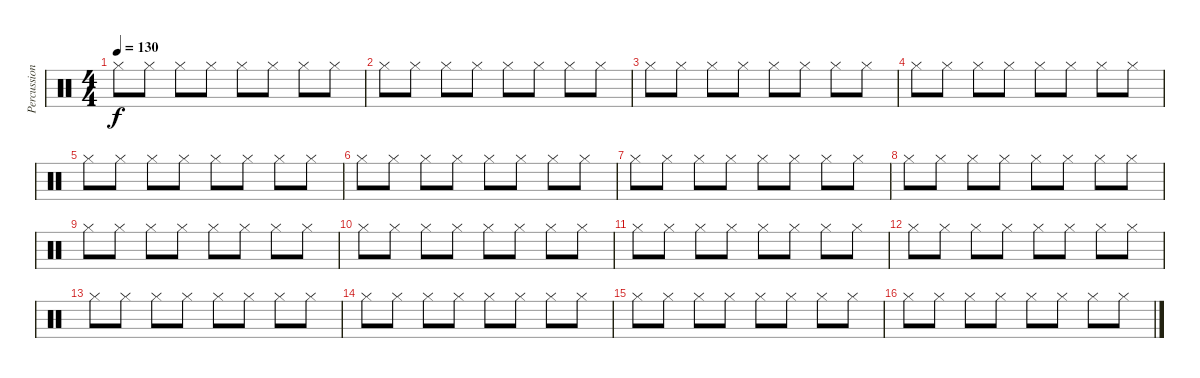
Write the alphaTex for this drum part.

\track ("Percussion" "Percussion") {instrument percussion}
\staff {score}
\articulation defaults
\ts (4 4)
\tempo 130
\clef neutral
\ks c "Hi-Hat (closed)".8{dy f} "Hi-Hat (closed)".8 "Hi-Hat (closed)".8 "Hi-Hat (closed)".8 "Hi-Hat (closed)".8 "Hi-Hat (closed)".8 "Hi-Hat (closed)".8 "Hi-Hat (closed)".8
|
"Hi-Hat (closed)".8 "Hi-Hat (closed)".8 "Hi-Hat (closed)".8 "Hi-Hat (closed)".8 "Hi-Hat (closed)".8 "Hi-Hat (closed)".8 "Hi-Hat (closed)".8 "Hi-Hat (closed)".8 |
"Hi-Hat (closed)".8 "Hi-Hat (closed)".8 "Hi-Hat (closed)".8 "Hi-Hat (closed)".8 "Hi-Hat (closed)".8 "Hi-Hat (closed)".8 "Hi-Hat (closed)".8 "Hi-Hat (closed)".8 |
"Hi-Hat (closed)".8 "Hi-Hat (closed)".8 "Hi-Hat (closed)".8 "Hi-Hat (closed)".8 "Hi-Hat (closed)".8 "Hi-Hat (closed)".8 "Hi-Hat (closed)".8 "Hi-Hat (closed)".8 |
"Hi-Hat (closed)".8 "Hi-Hat (closed)".8 "Hi-Hat (closed)".8 "Hi-Hat (closed)".8 "Hi-Hat (closed)".8 "Hi-Hat (closed)".8 "Hi-Hat (closed)".8 "Hi-Hat (closed)".8 |
"Hi-Hat (closed)".8 "Hi-Hat (closed)".8 "Hi-Hat (closed)".8 "Hi-Hat (closed)".8 "Hi-Hat (closed)".8 "Hi-Hat (closed)".8 "Hi-Hat (closed)".8 "Hi-Hat (closed)".8 |
"Hi-Hat (closed)".8 "Hi-Hat (closed)".8 "Hi-Hat (closed)".8 "Hi-Hat (closed)".8 "Hi-Hat (closed)".8 "Hi-Hat (closed)".8 "Hi-Hat (closed)".8 "Hi-Hat (closed)".8 |
"Hi-Hat (closed)".8 "Hi-Hat (closed)".8 "Hi-Hat (closed)".8 "Hi-Hat (closed)".8 "Hi-Hat (closed)".8 "Hi-Hat (closed)".8 "Hi-Hat (closed)".8 "Hi-Hat (closed)".8 |
"Hi-Hat (closed)".8 "Hi-Hat (closed)".8 "Hi-Hat (closed)".8 "Hi-Hat (closed)".8 "Hi-Hat (closed)".8 "Hi-Hat (closed)".8 "Hi-Hat (closed)".8 "Hi-Hat (closed)".8 |
"Hi-Hat (closed)".8 "Hi-Hat (closed)".8 "Hi-Hat (closed)".8 "Hi-Hat (closed)".8 "Hi-Hat (closed)".8 "Hi-Hat (closed)".8 "Hi-Hat (closed)".8 "Hi-Hat (closed)".8 |
"Hi-Hat (closed)".8 "Hi-Hat (closed)".8 "Hi-Hat (closed)".8 "Hi-Hat (closed)".8 "Hi-Hat (closed)".8 "Hi-Hat (closed)".8 "Hi-Hat (closed)".8 "Hi-Hat (closed)".8 |
"Hi-Hat (closed)".8 "Hi-Hat (closed)".8 "Hi-Hat (closed)".8 "Hi-Hat (closed)".8 "Hi-Hat (closed)".8 "Hi-Hat (closed)".8 "Hi-Hat (closed)".8 "Hi-Hat (closed)".8 |
"Hi-Hat (closed)".8 "Hi-Hat (closed)".8 "Hi-Hat (closed)".8 "Hi-Hat (closed)".8 "Hi-Hat (closed)".8 "Hi-Hat (closed)".8 "Hi-Hat (closed)".8 "Hi-Hat (closed)".8 |
"Hi-Hat (closed)".8 "Hi-Hat (closed)".8 "Hi-Hat (closed)".8 "Hi-Hat (closed)".8 "Hi-Hat (closed)".8 "Hi-Hat (closed)".8 "Hi-Hat (closed)".8 "Hi-Hat (closed)".8 |
"Hi-Hat (closed)".8 "Hi-Hat (closed)".8 "Hi-Hat (closed)".8 "Hi-Hat (closed)".8 "Hi-Hat (closed)".8 "Hi-Hat (closed)".8 "Hi-Hat (closed)".8 "Hi-Hat (closed)".8 |
"Hi-Hat (closed)".8 "Hi-Hat (closed)".8 "Hi-Hat (closed)".8 "Hi-Hat (closed)".8 "Hi-Hat (closed)".8 "Hi-Hat (closed)".8 "Hi-Hat (closed)".8 "Hi-Hat (closed)".8
